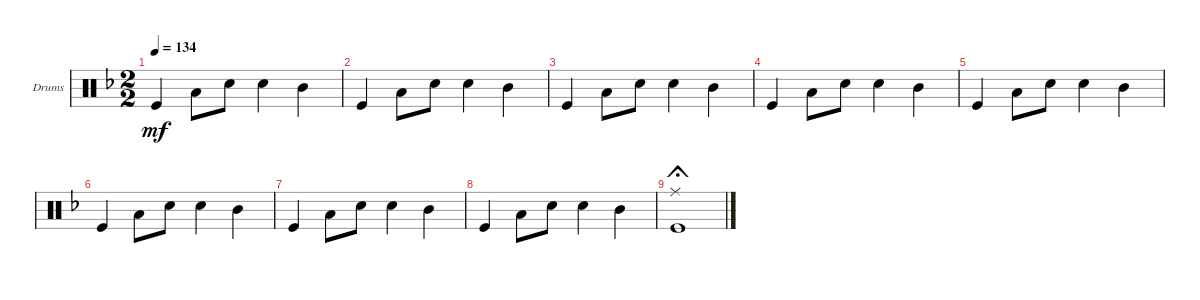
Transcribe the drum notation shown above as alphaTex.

\bracketExtendMode groupsimilarinstruments
\useSystemSignSeparator
\multiTrackTrackNamePolicy allsystems
\firstSystemTrackNameOrientation horizontal
\otherSystemsTrackNameOrientation horizontal
\track ("Drumkit" "Drums") {instrument percussion}
\staff {score}
\articulation defaults
\ts (2 2)
\tempo 134
\clef neutral
\ks f "Kick (hit)".4{dy mf} "Low Tom (hit)".8 "Snare (hit) 2".8 "Snare (hit) 2".4 "Mid Tom (hit)".4
|
"Kick (hit)".4 "Low Tom (hit)".8 "Snare (hit) 2".8 "Snare (hit) 2".4 "Mid Tom (hit)".4 |
"Kick (hit)".4 "Low Tom (hit)".8 "Snare (hit) 2".8 "Snare (hit) 2".4 "Mid Tom (hit)".4 |
"Kick (hit)".4 "Low Tom (hit)".8 "Snare (hit) 2".8 "Snare (hit) 2".4 "Mid Tom (hit)".4 |
"Kick (hit)".4 "Low Tom (hit)".8 "Snare (hit) 2".8 "Snare (hit) 2".4 "Mid Tom (hit)".4 |
"Kick (hit)".4 "Low Tom (hit)".8 "Snare (hit) 2".8 "Snare (hit) 2".4 "Mid Tom (hit)".4 |
"Kick (hit)".4 "Low Tom (hit)".8 "Snare (hit) 2".8 "Snare (hit) 2".4 "Mid Tom (hit)".4 |
"Kick (hit)".4 "Low Tom (hit)".8 "Snare (hit) 2".8 "Snare (hit) 2".4 "Mid Tom (hit)".4 |
("Kick (hit)" "Ride (middle)").1{fermata (short 0)}
